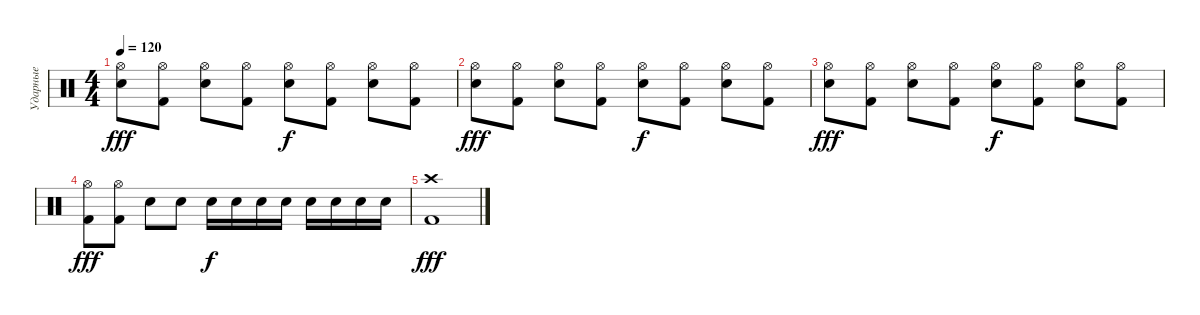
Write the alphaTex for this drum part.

\track ("Ударные" "Ударные") {instrument percussion}
\staff {score}
\articulation defaults
\ts (4 4)
\tempo 120
\clef neutral
\ks c
("Hi-Hat (open)" "Snare (hit) 2").8{dy fff} ("Hi-Hat (open)" "Kick (hit) 2").8 ("Hi-Hat (open)" "Snare (hit) 2").8 ("Hi-Hat (open)" "Kick (hit) 2").8 ("Hi-Hat (open)" "Snare (hit) 2").8{dy f} ("Hi-Hat (open)" "Kick (hit) 2").8 ("Hi-Hat (open)" "Snare (hit) 2").8 ("Hi-Hat (open)" "Kick (hit) 2").8 |
("Hi-Hat (open)" "Snare (hit) 2").8{dy fff} ("Hi-Hat (open)" "Kick (hit) 2").8 ("Hi-Hat (open)" "Snare (hit) 2").8 ("Hi-Hat (open)" "Kick (hit) 2").8 ("Hi-Hat (open)" "Snare (hit) 2").8{dy f} ("Hi-Hat (open)" "Kick (hit) 2").8 ("Hi-Hat (open)" "Snare (hit) 2").8 ("Hi-Hat (open)" "Kick (hit) 2").8 |
("Hi-Hat (open)" "Snare (hit) 2").8{dy fff} ("Hi-Hat (open)" "Kick (hit) 2").8 ("Hi-Hat (open)" "Snare (hit) 2").8 ("Hi-Hat (open)" "Kick (hit) 2").8 ("Hi-Hat (open)" "Snare (hit) 2").8{dy f} ("Hi-Hat (open)" "Kick (hit) 2").8 ("Hi-Hat (open)" "Snare (hit) 2").8 ("Hi-Hat (open)" "Kick (hit) 2").8 |
("Hi-Hat (open)" "Kick (hit) 2").8{dy fff} ("Hi-Hat (open)" "Kick (hit) 2").8 "Snare (hit) 2".8 "Snare (hit) 2".8 "Snare (hit) 2".16{dy f} "Snare (hit) 2".16 "Snare (hit) 2".16 "Snare (hit) 2".16 "Snare (hit) 2".16 "Snare (hit) 2".16 "Snare (hit) 2".16 "Snare (hit) 2".16 |
("Crash high (hit)" "Kick (hit) 2").1{dy fff}
